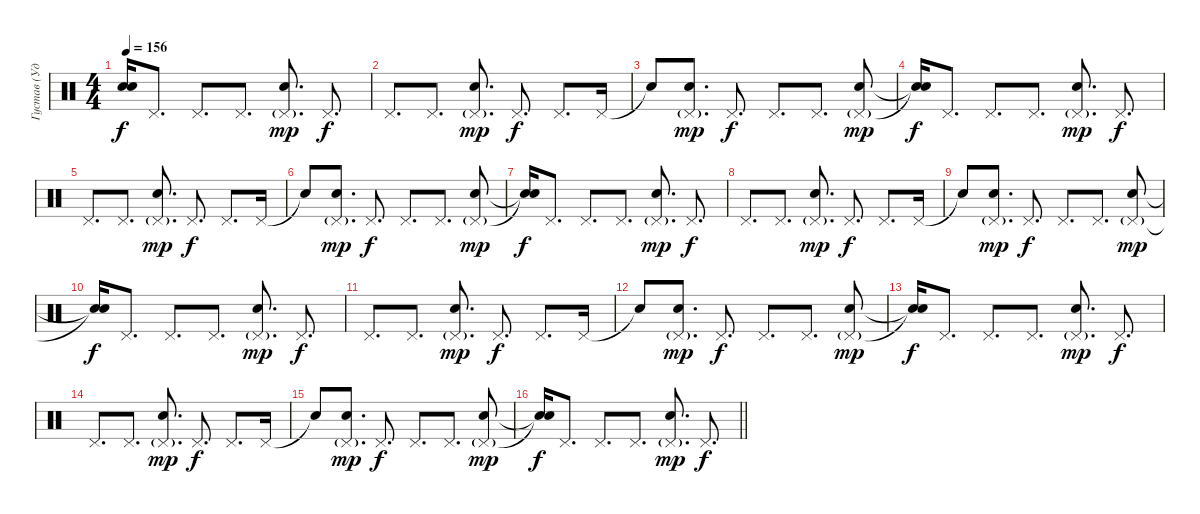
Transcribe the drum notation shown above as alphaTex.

\track ("Густав (Ударные)" "Густав (Уд") {instrument percussion}
\staff {score}
\articulation defaults
\ts (4 4)
\tempo 156
\clef neutral
\ks c
("Snare (hit)"{t} "Snare (hit)"{t}).16{dy f} "Pedal Hi-Hat (hit)".8{d} "Pedal Hi-Hat (hit)".8{d} "Pedal Hi-Hat (hit)".8{d} ("Pedal Hi-Hat (hit)"{g} "Electric Snare (hit)").8{d dy mp} "Pedal Hi-Hat (hit)".8{d dy f} |
"Pedal Hi-Hat (hit)".8{d} "Pedal Hi-Hat (hit)".8{d} ("Pedal Hi-Hat (hit)"{g} "Electric Snare (hit)").8{d dy mp} "Pedal Hi-Hat (hit)".8{d dy f} "Pedal Hi-Hat (hit)".8{d} "Pedal Hi-Hat (hit)".16 |
"Snare (hit)"{t}.8 ("Pedal Hi-Hat (hit)"{g} "Electric Snare (hit)").8{d dy mp} "Pedal Hi-Hat (hit)".8{d dy f} "Pedal Hi-Hat (hit)".8{d} "Pedal Hi-Hat (hit)".8{d} ("Pedal Hi-Hat (hit)"{g} "Electric Snare (hit)").8{dy mp} |
("Snare (hit)"{t} "Snare (hit)"{t}).16{dy f} "Pedal Hi-Hat (hit)".8{d} "Pedal Hi-Hat (hit)".8{d} "Pedal Hi-Hat (hit)".8{d} ("Pedal Hi-Hat (hit)"{g} "Electric Snare (hit)").8{d dy mp} "Pedal Hi-Hat (hit)".8{d dy f} |
"Pedal Hi-Hat (hit)".8{d} "Pedal Hi-Hat (hit)".8{d} ("Pedal Hi-Hat (hit)"{g} "Electric Snare (hit)").8{d dy mp} "Pedal Hi-Hat (hit)".8{d dy f} "Pedal Hi-Hat (hit)".8{d} "Pedal Hi-Hat (hit)".16 |
"Snare (hit)"{t}.8 ("Pedal Hi-Hat (hit)"{g} "Electric Snare (hit)").8{d dy mp} "Pedal Hi-Hat (hit)".8{d dy f} "Pedal Hi-Hat (hit)".8{d} "Pedal Hi-Hat (hit)".8{d} ("Pedal Hi-Hat (hit)"{g} "Electric Snare (hit)").8{dy mp} |
("Snare (hit)"{t} "Snare (hit)"{t}).16{dy f} "Pedal Hi-Hat (hit)".8{d} "Pedal Hi-Hat (hit)".8{d} "Pedal Hi-Hat (hit)".8{d} ("Pedal Hi-Hat (hit)"{g} "Electric Snare (hit)").8{d dy mp} "Pedal Hi-Hat (hit)".8{d dy f} |
"Pedal Hi-Hat (hit)".8{d} "Pedal Hi-Hat (hit)".8{d} ("Pedal Hi-Hat (hit)"{g} "Electric Snare (hit)").8{d dy mp} "Pedal Hi-Hat (hit)".8{d dy f} "Pedal Hi-Hat (hit)".8{d} "Pedal Hi-Hat (hit)".16 |
"Snare (hit)"{t}.8 ("Pedal Hi-Hat (hit)"{g} "Electric Snare (hit)").8{d dy mp} "Pedal Hi-Hat (hit)".8{d dy f} "Pedal Hi-Hat (hit)".8{d} "Pedal Hi-Hat (hit)".8{d} ("Pedal Hi-Hat (hit)"{g} "Electric Snare (hit)").8{dy mp} |
("Snare (hit)"{t} "Snare (hit)"{t}).16{dy f} "Pedal Hi-Hat (hit)".8{d} "Pedal Hi-Hat (hit)".8{d} "Pedal Hi-Hat (hit)".8{d} ("Pedal Hi-Hat (hit)"{g} "Electric Snare (hit)").8{d dy mp} "Pedal Hi-Hat (hit)".8{d dy f} |
"Pedal Hi-Hat (hit)".8{d} "Pedal Hi-Hat (hit)".8{d} ("Pedal Hi-Hat (hit)"{g} "Electric Snare (hit)").8{d dy mp} "Pedal Hi-Hat (hit)".8{d dy f} "Pedal Hi-Hat (hit)".8{d} "Pedal Hi-Hat (hit)".16 |
"Snare (hit)"{t}.8 ("Pedal Hi-Hat (hit)"{g} "Electric Snare (hit)").8{d dy mp} "Pedal Hi-Hat (hit)".8{d dy f} "Pedal Hi-Hat (hit)".8{d} "Pedal Hi-Hat (hit)".8{d} ("Pedal Hi-Hat (hit)"{g} "Electric Snare (hit)").8{dy mp} |
("Snare (hit)"{t} "Snare (hit)"{t}).16{dy f} "Pedal Hi-Hat (hit)".8{d} "Pedal Hi-Hat (hit)".8{d} "Pedal Hi-Hat (hit)".8{d} ("Pedal Hi-Hat (hit)"{g} "Electric Snare (hit)").8{d dy mp} "Pedal Hi-Hat (hit)".8{d dy f} |
"Pedal Hi-Hat (hit)".8{d} "Pedal Hi-Hat (hit)".8{d} ("Pedal Hi-Hat (hit)"{g} "Electric Snare (hit)").8{d dy mp} "Pedal Hi-Hat (hit)".8{d dy f} "Pedal Hi-Hat (hit)".8{d} "Pedal Hi-Hat (hit)".16 |
"Snare (hit)"{t}.8 ("Pedal Hi-Hat (hit)"{g} "Electric Snare (hit)").8{d dy mp} "Pedal Hi-Hat (hit)".8{d dy f} "Pedal Hi-Hat (hit)".8{d} "Pedal Hi-Hat (hit)".8{d} ("Pedal Hi-Hat (hit)"{g} "Electric Snare (hit)").8{dy mp} |
\barLineRight lightlight
("Snare (hit)"{t} "Snare (hit)"{t}).16{dy f} "Pedal Hi-Hat (hit)".8{d} "Pedal Hi-Hat (hit)".8{d} "Pedal Hi-Hat (hit)".8{d} ("Pedal Hi-Hat (hit)"{g} "Electric Snare (hit)").8{d dy mp} "Pedal Hi-Hat (hit)".8{d dy f}
